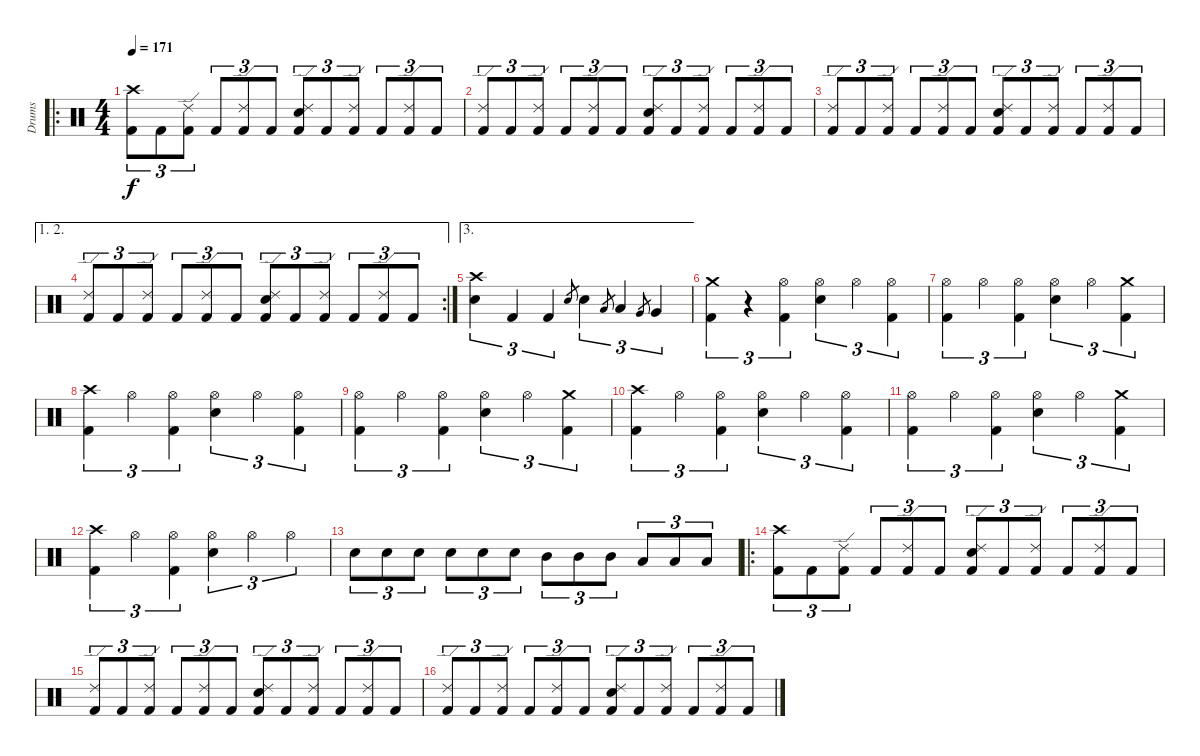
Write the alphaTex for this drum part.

\track ("Drums" "Drums") {instrument percussion}
\staff {score}
\articulation defaults
\ro
\ts (4 4)
\tempo 171
\clef neutral
\ks c
("Crash high (hit)" "Kick (hit) 2").8{tu (3 2) dy f} "Kick (hit) 2".8{tu (3 2)} ("Ride (edge) 2" "Kick (hit) 2").8{tu (3 2)} "Kick (hit) 2".8{tu (3 2)} ("Ride (edge) 2" "Kick (hit) 2").8{tu (3 2)} "Kick (hit) 2".8{tu (3 2)} ("Ride (edge) 2" "Electric Snare (hit)" "Kick (hit) 2").8{tu (3 2)} "Kick (hit) 2".8{tu (3 2)} ("Ride (edge) 2" "Kick (hit) 2").8{tu (3 2)} "Kick (hit) 2".8{tu (3 2)} ("Ride (edge) 2" "Kick (hit) 2").8{tu (3 2)} "Kick (hit) 2".8{tu (3 2)} |
("Ride (edge) 2" "Kick (hit) 2").8{tu (3 2)} "Kick (hit) 2".8{tu (3 2)} ("Ride (edge) 2" "Kick (hit) 2").8{tu (3 2)} "Kick (hit) 2".8{tu (3 2)} ("Ride (edge) 2" "Kick (hit) 2").8{tu (3 2)} "Kick (hit) 2".8{tu (3 2)} ("Ride (edge) 2" "Electric Snare (hit)" "Kick (hit) 2").8{tu (3 2)} "Kick (hit) 2".8{tu (3 2)} ("Ride (edge) 2" "Kick (hit) 2").8{tu (3 2)} "Kick (hit) 2".8{tu (3 2)} ("Ride (edge) 2" "Kick (hit) 2").8{tu (3 2)} "Kick (hit) 2".8{tu (3 2)} |
("Ride (edge) 2" "Kick (hit) 2").8{tu (3 2)} "Kick (hit) 2".8{tu (3 2)} ("Ride (edge) 2" "Kick (hit) 2").8{tu (3 2)} "Kick (hit) 2".8{tu (3 2)} ("Ride (edge) 2" "Kick (hit) 2").8{tu (3 2)} "Kick (hit) 2".8{tu (3 2)} ("Ride (edge) 2" "Electric Snare (hit)" "Kick (hit) 2").8{tu (3 2)} "Kick (hit) 2".8{tu (3 2)} ("Ride (edge) 2" "Kick (hit) 2").8{tu (3 2)} "Kick (hit) 2".8{tu (3 2)} ("Ride (edge) 2" "Kick (hit) 2").8{tu (3 2)} "Kick (hit) 2".8{tu (3 2)} |
\ae (1 2)
\rc 2
("Ride (edge) 2" "Kick (hit) 2").8{tu (3 2)} "Kick (hit) 2".8{tu (3 2)} ("Ride (edge) 2" "Kick (hit) 2").8{tu (3 2)} "Kick (hit) 2".8{tu (3 2)} ("Ride (edge) 2" "Kick (hit) 2").8{tu (3 2)} "Kick (hit) 2".8{tu (3 2)} ("Ride (edge) 2" "Electric Snare (hit)" "Kick (hit) 2").8{tu (3 2)} "Kick (hit) 2".8{tu (3 2)} ("Ride (edge) 2" "Kick (hit) 2").8{tu (3 2)} "Kick (hit) 2".8{tu (3 2)} ("Ride (edge) 2" "Kick (hit) 2").8{tu (3 2)} "Kick (hit) 2".8{tu (3 2)} |
\ae 3
("Crash high (hit)" "Electric Snare (hit)").4{tu (3 2)} "Kick (hit) 2".4{tu (3 2)} "Kick (hit) 2".4{tu (3 2)} "Electric Snare (hit)".8{gr} "Electric Snare (hit)".4{tu (3 2)} "Low Tom (hit)".8{gr} "Low Tom (hit)".4{tu (3 2)} "Very Low Tom (hit)".8{gr} "Very Low Tom (hit)".4{tu (3 2)} |
("Crash medium (hit)" "Kick (hit) 2").4{tu (3 2)} r.4{tu (3 2)} ("Hi-Hat (open)" "Kick (hit) 2").4{tu (3 2)} ("Hi-Hat (open)" "Electric Snare (hit)").4{tu (3 2)} "Hi-Hat (open)".4{tu (3 2)} ("Hi-Hat (open)" "Kick (hit) 2").4{tu (3 2)} |
("Hi-Hat (open)" "Kick (hit) 2").4{tu (3 2)} "Hi-Hat (open)".4{tu (3 2)} ("Hi-Hat (open)" "Kick (hit) 2").4{tu (3 2)} ("Hi-Hat (open)" "Electric Snare (hit)").4{tu (3 2)} "Hi-Hat (open)".4{tu (3 2)} ("Crash medium (hit)" "Kick (hit) 2").4{tu (3 2)} |
("Crash high (hit)" "Kick (hit) 2").4{tu (3 2)} "Hi-Hat (open)".4{tu (3 2)} ("Hi-Hat (open)" "Kick (hit) 2").4{tu (3 2)} ("Hi-Hat (open)" "Electric Snare (hit)").4{tu (3 2)} "Hi-Hat (open)".4{tu (3 2)} ("Hi-Hat (open)" "Kick (hit) 2").4{tu (3 2)} |
("Hi-Hat (open)" "Kick (hit) 2").4{tu (3 2)} "Hi-Hat (open)".4{tu (3 2)} ("Hi-Hat (open)" "Kick (hit) 2").4{tu (3 2)} ("Hi-Hat (open)" "Electric Snare (hit)").4{tu (3 2)} "Hi-Hat (open)".4{tu (3 2)} ("Crash medium (hit)" "Kick (hit) 2").4{tu (3 2)} |
("Crash high (hit)" "Kick (hit) 2").4{tu (3 2)} "Hi-Hat (open)".4{tu (3 2)} ("Hi-Hat (open)" "Kick (hit) 2").4{tu (3 2)} ("Hi-Hat (open)" "Electric Snare (hit)").4{tu (3 2)} "Hi-Hat (open)".4{tu (3 2)} ("Hi-Hat (open)" "Kick (hit) 2").4{tu (3 2)} |
("Hi-Hat (open)" "Kick (hit) 2").4{tu (3 2)} "Hi-Hat (open)".4{tu (3 2)} ("Hi-Hat (open)" "Kick (hit) 2").4{tu (3 2)} ("Hi-Hat (open)" "Electric Snare (hit)").4{tu (3 2)} "Hi-Hat (open)".4{tu (3 2)} ("Crash medium (hit)" "Kick (hit) 2").4{tu (3 2)} |
("Crash high (hit)" "Kick (hit) 2").4{tu (3 2)} "Hi-Hat (open)".4{tu (3 2)} ("Hi-Hat (open)" "Kick (hit) 2").4{tu (3 2)} ("Hi-Hat (open)" "Electric Snare (hit)").4{tu (3 2)} "Hi-Hat (open)".4{tu (3 2)} "Hi-Hat (open)".4{tu (3 2)} |
"Electric Snare (hit)".8{tu (3 2)} "Electric Snare (hit)".8{tu (3 2)} "Electric Snare (hit)".8{tu (3 2)} "Electric Snare (hit)".8{tu (3 2)} "Electric Snare (hit)".8{tu (3 2)} "Electric Snare (hit)".8{tu (3 2)} "Mid Tom (hit)".8{tu (3 2)} "Mid Tom (hit)".8{tu (3 2)} "Mid Tom (hit)".8{tu (3 2)} "Low Tom (hit)".8{tu (3 2)} "Low Tom (hit)".8{tu (3 2)} "Low Tom (hit)".8{tu (3 2)} |
\ro
("Crash high (hit)" "Kick (hit) 2").8{tu (3 2)} "Kick (hit) 2".8{tu (3 2)} ("Ride (edge) 2" "Kick (hit) 2").8{tu (3 2)} "Kick (hit) 2".8{tu (3 2)} ("Ride (edge) 2" "Kick (hit) 2").8{tu (3 2)} "Kick (hit) 2".8{tu (3 2)} ("Ride (edge) 2" "Electric Snare (hit)" "Kick (hit) 2").8{tu (3 2)} "Kick (hit) 2".8{tu (3 2)} ("Ride (edge) 2" "Kick (hit) 2").8{tu (3 2)} "Kick (hit) 2".8{tu (3 2)} ("Ride (edge) 2" "Kick (hit) 2").8{tu (3 2)} "Kick (hit) 2".8{tu (3 2)} |
("Ride (edge) 2" "Kick (hit) 2").8{tu (3 2)} "Kick (hit) 2".8{tu (3 2)} ("Ride (edge) 2" "Kick (hit) 2").8{tu (3 2)} "Kick (hit) 2".8{tu (3 2)} ("Ride (edge) 2" "Kick (hit) 2").8{tu (3 2)} "Kick (hit) 2".8{tu (3 2)} ("Ride (edge) 2" "Electric Snare (hit)" "Kick (hit) 2").8{tu (3 2)} "Kick (hit) 2".8{tu (3 2)} ("Ride (edge) 2" "Kick (hit) 2").8{tu (3 2)} "Kick (hit) 2".8{tu (3 2)} ("Ride (edge) 2" "Kick (hit) 2").8{tu (3 2)} "Kick (hit) 2".8{tu (3 2)} |
("Ride (edge) 2" "Kick (hit) 2").8{tu (3 2)} "Kick (hit) 2".8{tu (3 2)} ("Ride (edge) 2" "Kick (hit) 2").8{tu (3 2)} "Kick (hit) 2".8{tu (3 2)} ("Ride (edge) 2" "Kick (hit) 2").8{tu (3 2)} "Kick (hit) 2".8{tu (3 2)} ("Ride (edge) 2" "Electric Snare (hit)" "Kick (hit) 2").8{tu (3 2)} "Kick (hit) 2".8{tu (3 2)} ("Ride (edge) 2" "Kick (hit) 2").8{tu (3 2)} "Kick (hit) 2".8{tu (3 2)} ("Ride (edge) 2" "Kick (hit) 2").8{tu (3 2)} "Kick (hit) 2".8{tu (3 2)}
